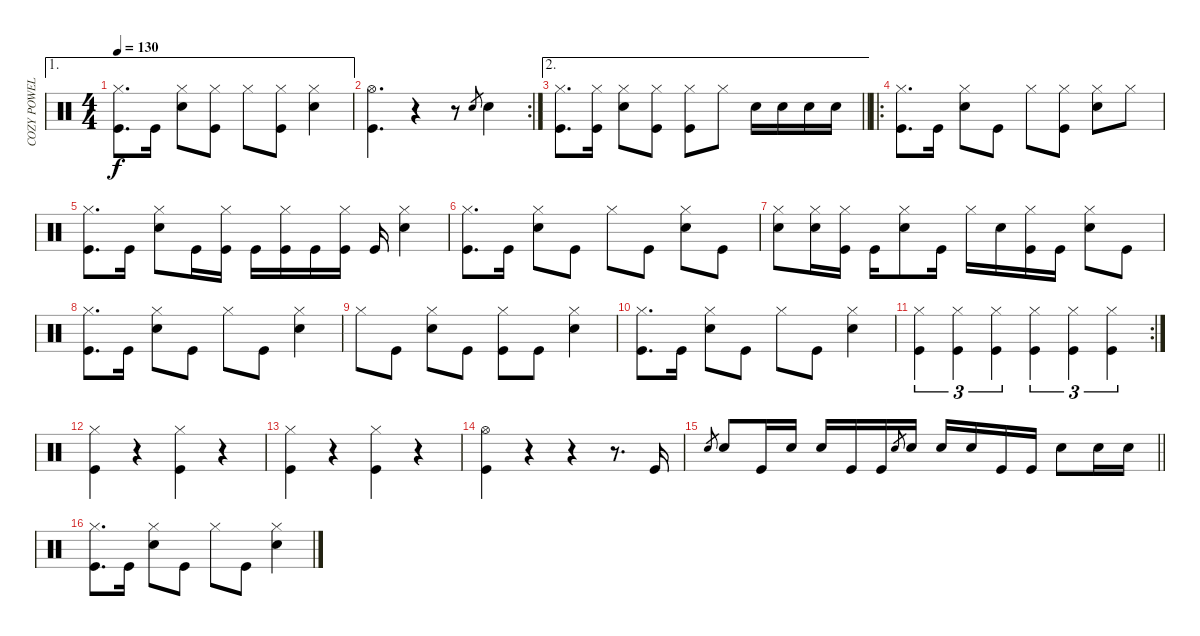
\track ("COZY POWELL" "COZY POWEL") {instrument percussion}
\staff {score}
\articulation defaults
\ae 1
\ts (4 4)
\tempo 130
\clef neutral
\ks c
("Hi-Hat (closed)" "Kick (hit)").8{d dy f} "Kick (hit)".16 ("Hi-Hat (closed)" "Snare (hit) 2").8 ("Hi-Hat (closed)" "Kick (hit)").8 "Hi-Hat (closed)".8 ("Hi-Hat (closed)" "Kick (hit)").8 ("Hi-Hat (closed)" "Snare (hit) 2").4 |
\rc 2
("Hi-Hat (open)" "Kick (hit)").4{d} r.4 r.8 "Snare (hit) 2".8{gr} "Snare (hit) 2".4 |
\ae 2
\barLineRight lightlight
("Hi-Hat (closed)" "Kick (hit)").8{d} ("Hi-Hat (closed)" "Kick (hit)").16 ("Hi-Hat (closed)" "Snare (hit) 2").8 ("Hi-Hat (closed)" "Kick (hit)").8 ("Hi-Hat (closed)" "Kick (hit)").8 "Hi-Hat (closed)".8 "Snare (hit) 2".16 "Snare (hit) 2".16 "Snare (hit) 2".16 "Snare (hit) 2".16 |
\ro
("Hi-Hat (closed)" "Kick (hit)").8{d} "Kick (hit)".16 ("Hi-Hat (closed)" "Snare (hit) 2").8 "Kick (hit)".8 "Hi-Hat (closed)".8 ("Hi-Hat (closed)" "Kick (hit)").8 ("Hi-Hat (closed)" "Snare (hit) 2").8 "Hi-Hat (closed)".8 |
("Hi-Hat (closed)" "Kick (hit)").8{d} "Kick (hit)".16 ("Hi-Hat (closed)" "Snare (hit) 2").8 "Kick (hit)".16 ("Hi-Hat (closed)" "Kick (hit)").16 "Kick (hit)".16 ("Hi-Hat (closed)" "Kick (hit)").16 "Kick (hit)".16 ("Hi-Hat (closed)" "Kick (hit)").16 "Kick (hit)".16 ("Hi-Hat (closed)" "Snare (hit) 2").4 |
("Hi-Hat (closed)" "Kick (hit)").8{d} "Kick (hit)".16 ("Hi-Hat (closed)" "Snare (hit) 2").8 "Kick (hit)".8 "Hi-Hat (closed)".8 "Kick (hit)".8 ("Hi-Hat (closed)" "Snare (hit) 2").8 "Kick (hit)".8 |
("Hi-Hat (closed)" "Snare (hit) 2").8 ("Hi-Hat (closed)" "Snare (hit) 2").16 ("Hi-Hat (closed)" "Kick (hit)").16 "Kick (hit)".16 ("Hi-Hat (closed)" "Snare (hit) 2").8 "Kick (hit)".16 "Hi-Hat (closed)".16 "Snare (hit) 2".16 ("Hi-Hat (closed)" "Kick (hit)").16 "Kick (hit)".16 ("Hi-Hat (closed)" "Snare (hit) 2").8 "Kick (hit)".8 |
("Hi-Hat (closed)" "Kick (hit)").8{d} "Kick (hit)".16 ("Hi-Hat (closed)" "Snare (hit) 2").8 "Kick (hit)".8 "Hi-Hat (closed)".8 "Kick (hit)".8 ("Hi-Hat (closed)" "Snare (hit) 2").4 |
"Hi-Hat (closed)".8 "Kick (hit)".8 ("Hi-Hat (closed)" "Snare (hit) 2").8 "Kick (hit)".8 ("Hi-Hat (closed)" "Kick (hit)").8 "Kick (hit)".8 ("Hi-Hat (closed)" "Snare (hit) 2").4 |
("Hi-Hat (closed)" "Kick (hit)").8{d} "Kick (hit)".16 ("Hi-Hat (closed)" "Snare (hit) 2").8 "Kick (hit)".8 "Hi-Hat (closed)".8 "Kick (hit)".8 ("Hi-Hat (closed)" "Snare (hit) 2").4 |
\rc 2
("Hi-Hat (closed)" "Kick (hit)").4{tu (3 2)} ("Hi-Hat (closed)" "Kick (hit)").4{tu (3 2)} ("Hi-Hat (closed)" "Kick (hit)").4{tu (3 2)} ("Hi-Hat (closed)" "Kick (hit)").4{tu (3 2)} ("Hi-Hat (closed)" "Kick (hit)").4{tu (3 2)} ("Hi-Hat (closed)" "Kick (hit)").4{tu (3 2)} |
("Hi-Hat (closed)" "Kick (hit)").4 r.4 ("Hi-Hat (closed)" "Kick (hit)").4 r.4 |
("Hi-Hat (closed)" "Kick (hit)").4 r.4 ("Hi-Hat (closed)" "Kick (hit)").4 r.4 |
("Hi-Hat (open)" "Kick (hit)").4 r.4 r.4 r.8{d} "Kick (hit)".16 |
\barLineRight lightlight "Snare (hit) 2".8{gr} "Snare (hit) 2".8 "Kick (hit)".16 "Snare (hit) 2".16 "Snare (hit) 2".16 "Kick (hit)".16 "Kick (hit)".16 "Snare (hit) 2".8{gr} "Snare (hit) 2".16 "Snare (hit) 2".16 "Snare (hit) 2".16 "Kick (hit)".16 "Kick (hit)".16 "Snare (hit) 2".8 "Snare (hit) 2".16 "Snare (hit) 2".16
|
("Hi-Hat (closed)" "Kick (hit)").8{d} "Kick (hit)".16 ("Hi-Hat (closed)" "Snare (hit) 2").8 "Kick (hit)".8 "Hi-Hat (closed)".8 "Kick (hit)".8 ("Hi-Hat (closed)" "Snare (hit) 2").4
